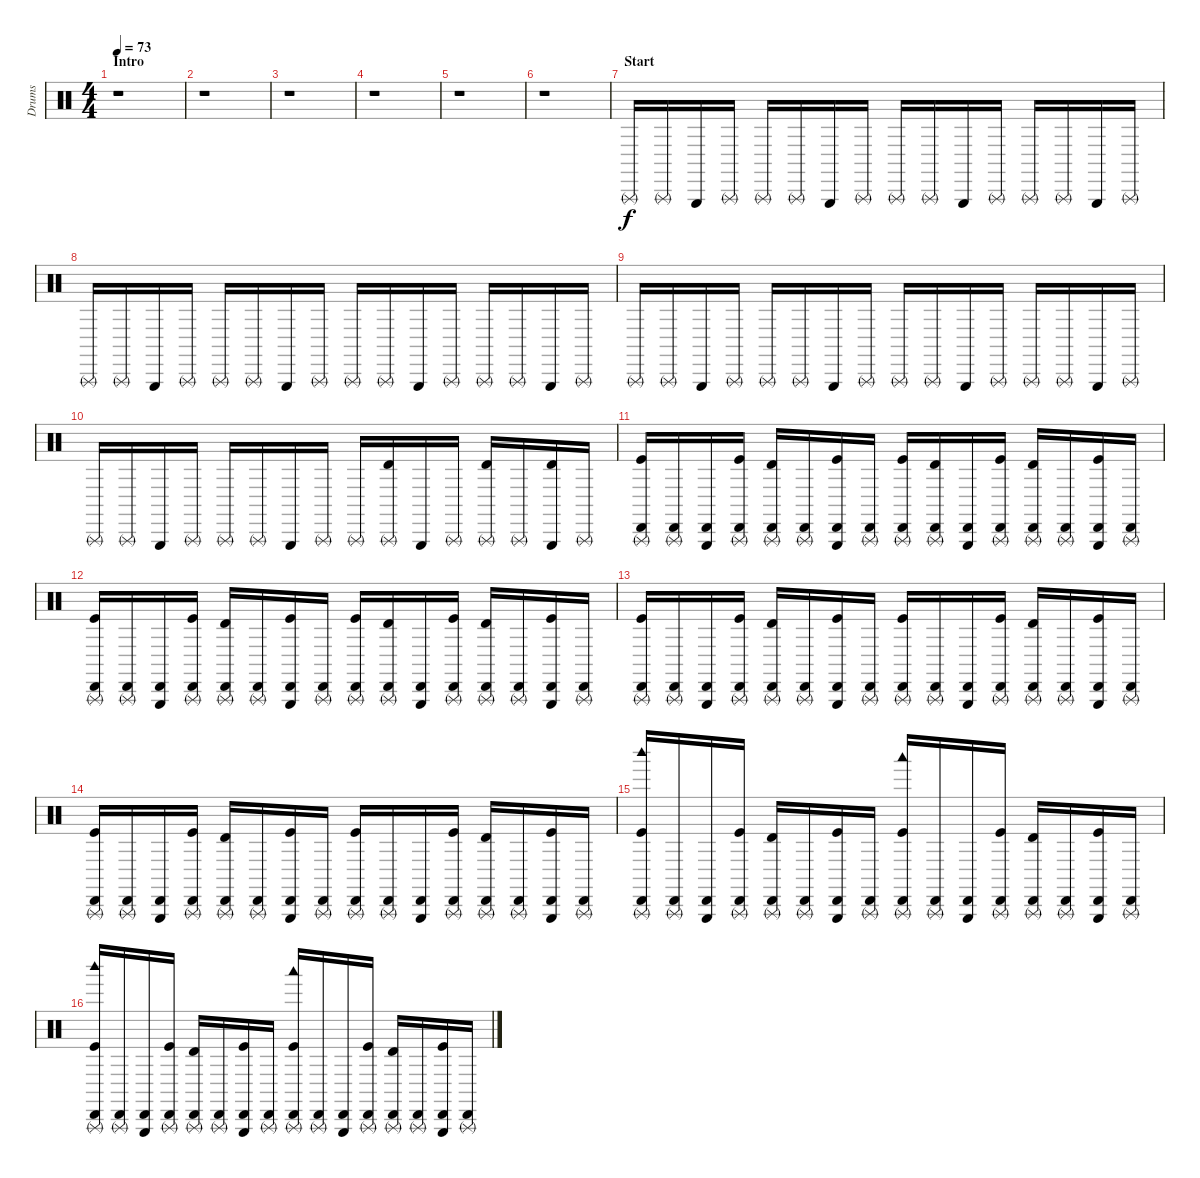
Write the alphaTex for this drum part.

\track ("Drums" "Drums") {instrument percussion}
\staff {score}
\articulation defaults
\ts (4 4)
\section ("" "Intro")
\tempo 73
\clef neutral
\ks c
r.1{dy f} |
r.1 |
r.1 |
r.1 |
r.1 |
r.1 |
\section ("" "Start")
"Triangle (rnute)".16 "Triangle (rnute)".16 "Triangle (hit)".16 "Triangle (rnute)".16 "Triangle (rnute)".16 "Triangle (rnute)".16 "Triangle (hit)".16 "Triangle (rnute)".16 "Triangle (rnute)".16 "Triangle (rnute)".16 "Triangle (hit)".16 "Triangle (rnute)".16 "Triangle (rnute)".16 "Triangle (rnute)".16 "Triangle (hit)".16 "Triangle (rnute)".16 |
"Triangle (rnute)".16 "Triangle (rnute)".16 "Triangle (hit)".16 "Triangle (rnute)".16 "Triangle (rnute)".16 "Triangle (rnute)".16 "Triangle (hit)".16 "Triangle (rnute)".16 "Triangle (rnute)".16 "Triangle (rnute)".16 "Triangle (hit)".16 "Triangle (rnute)".16 "Triangle (rnute)".16 "Triangle (rnute)".16 "Triangle (hit)".16 "Triangle (rnute)".16 |
"Triangle (rnute)".16 "Triangle (rnute)".16 "Triangle (hit)".16 "Triangle (rnute)".16 "Triangle (rnute)".16 "Triangle (rnute)".16 "Triangle (hit)".16 "Triangle (rnute)".16 "Triangle (rnute)".16 "Triangle (rnute)".16 "Triangle (hit)".16 "Triangle (rnute)".16 "Triangle (rnute)".16 "Triangle (rnute)".16 "Triangle (hit)".16 "Triangle (rnute)".16 |
"Triangle (rnute)".16 "Triangle (rnute)".16 "Triangle (hit)".16 "Triangle (rnute)".16 "Triangle (rnute)".16 "Triangle (rnute)".16 "Triangle (hit)".16 "Triangle (rnute)".16 "Triangle (rnute)".16 ("Timbale high (hit)" "Triangle (rnute)").16 "Triangle (hit)".16 "Triangle (rnute)".16 ("Timbale high (hit)" "Triangle (rnute)").16 "Triangle (rnute)".16 ("Timbale high (hit)" "Triangle (hit)").16 "Triangle (rnute)".16 |
("Cabasa (hit)" "Kick (hit)" "Triangle (rnute)").16 ("Cabasa (hit)" "Triangle (rnute)").16 ("Cabasa (hit)" "Triangle (hit)").16 ("Cabasa (hit)" "Kick (hit)" "Triangle (rnute)").16 ("Cabasa (hit)" "Timbale high (hit)" "Triangle (rnute)").16 ("Cabasa (hit)" "Triangle (rnute)").16 ("Cabasa (hit)" "Kick (hit)" "Triangle (hit)").16 ("Cabasa (hit)" "Triangle (rnute)").16 ("Cabasa (hit)" "Kick (hit)" "Triangle (rnute)").16 ("Cabasa (hit)" "Timbale high (hit)" "Triangle (rnute)").16 ("Cabasa (hit)" "Triangle (hit)").16 ("Cabasa (hit)" "Kick (hit)" "Triangle (rnute)").16 ("Cabasa (hit)" "Timbale high (hit)" "Triangle (rnute)").16 ("Cabasa (hit)" "Triangle (rnute)").16 ("Cabasa (hit)" "Kick (hit)" "Triangle (hit)").16 ("Cabasa (hit)" "Triangle (rnute)").16 |
("Cabasa (hit)" "Kick (hit)" "Triangle (rnute)").16 ("Cabasa (hit)" "Triangle (rnute)").16 ("Cabasa (hit)" "Triangle (hit)").16 ("Cabasa (hit)" "Kick (hit)" "Triangle (rnute)").16 ("Cabasa (hit)" "Timbale high (hit)" "Triangle (rnute)").16 ("Cabasa (hit)" "Triangle (rnute)").16 ("Cabasa (hit)" "Kick (hit)" "Triangle (hit)").16 ("Cabasa (hit)" "Triangle (rnute)").16 ("Cabasa (hit)" "Kick (hit)" "Triangle (rnute)").16 ("Cabasa (hit)" "Timbale high (hit)" "Triangle (rnute)").16 ("Cabasa (hit)" "Triangle (hit)").16 ("Cabasa (hit)" "Kick (hit)" "Triangle (rnute)").16 ("Cabasa (hit)" "Timbale high (hit)" "Triangle (rnute)").16 ("Cabasa (hit)" "Triangle (rnute)").16 ("Cabasa (hit)" "Kick (hit)" "Triangle (hit)").16 ("Cabasa (hit)" "Triangle (rnute)").16 |
("Cabasa (hit)" "Kick (hit)" "Triangle (rnute)").16 ("Cabasa (hit)" "Triangle (rnute)").16 ("Cabasa (hit)" "Triangle (hit)").16 ("Cabasa (hit)" "Kick (hit)" "Triangle (rnute)").16 ("Cabasa (hit)" "Timbale high (hit)" "Triangle (rnute)").16 ("Cabasa (hit)" "Triangle (rnute)").16 ("Cabasa (hit)" "Kick (hit)" "Triangle (hit)").16 ("Cabasa (hit)" "Triangle (rnute)").16 ("Cabasa (hit)" "Kick (hit)" "Triangle (rnute)").16 ("Cabasa (hit)" "Triangle (rnute)").16 ("Cabasa (hit)" "Triangle (hit)").16 ("Cabasa (hit)" "Kick (hit)" "Triangle (rnute)").16 ("Cabasa (hit)" "Timbale high (hit)" "Triangle (rnute)").16 ("Cabasa (hit)" "Triangle (rnute)").16 ("Cabasa (hit)" "Kick (hit)" "Triangle (hit)").16 ("Cabasa (hit)" "Triangle (rnute)").16 |
("Cabasa (hit)" "Kick (hit)" "Triangle (rnute)").16 ("Cabasa (hit)" "Triangle (rnute)").16 ("Cabasa (hit)" "Triangle (hit)").16 ("Cabasa (hit)" "Kick (hit)" "Triangle (rnute)").16 ("Cabasa (hit)" "Timbale high (hit)" "Triangle (rnute)").16 ("Cabasa (hit)" "Triangle (rnute)").16 ("Cabasa (hit)" "Kick (hit)" "Triangle (hit)").16 ("Cabasa (hit)" "Triangle (rnute)").16 ("Cabasa (hit)" "Kick (hit)" "Triangle (rnute)").16 ("Cabasa (hit)" "Triangle (rnute)").16 ("Cabasa (hit)" "Triangle (hit)").16 ("Cabasa (hit)" "Kick (hit)" "Triangle (rnute)").16 ("Cabasa (hit)" "Timbale high (hit)" "Triangle (rnute)").16 ("Cabasa (hit)" "Triangle (rnute)").16 ("Cabasa (hit)" "Kick (hit)" "Triangle (hit)").16 ("Cabasa (hit)" "Triangle (rnute)").16 |
("Woodblock high (hit)" "Cabasa (hit)" "Kick (hit)" "Triangle (rnute)").16 ("Cabasa (hit)" "Triangle (rnute)").16 ("Cabasa (hit)" "Triangle (hit)").16 ("Cabasa (hit)" "Kick (hit)" "Triangle (rnute)").16 ("Cabasa (hit)" "Timbale high (hit)" "Triangle (rnute)").16 ("Cabasa (hit)" "Triangle (rnute)").16 ("Cabasa (hit)" "Kick (hit)" "Triangle (hit)").16 ("Cabasa (hit)" "Triangle (rnute)").16 ("Woodblock low (hit)" "Cabasa (hit)" "Kick (hit)" "Triangle (rnute)").16 ("Cabasa (hit)" "Triangle (rnute)").16 ("Cabasa (hit)" "Triangle (hit)").16 ("Cabasa (hit)" "Kick (hit)" "Triangle (rnute)").16 ("Cabasa (hit)" "Timbale high (hit)" "Triangle (rnute)").16 ("Cabasa (hit)" "Triangle (rnute)").16 ("Cabasa (hit)" "Kick (hit)" "Triangle (hit)").16 ("Cabasa (hit)" "Triangle (rnute)").16 |
("Woodblock high (hit)" "Cabasa (hit)" "Kick (hit)" "Triangle (rnute)").16 ("Cabasa (hit)" "Triangle (rnute)").16 ("Cabasa (hit)" "Triangle (hit)").16 ("Cabasa (hit)" "Kick (hit)" "Triangle (rnute)").16 ("Cabasa (hit)" "Timbale high (hit)" "Triangle (rnute)").16 ("Cabasa (hit)" "Triangle (rnute)").16 ("Cabasa (hit)" "Kick (hit)" "Triangle (hit)").16 ("Cabasa (hit)" "Triangle (rnute)").16 ("Woodblock low (hit)" "Cabasa (hit)" "Kick (hit)" "Triangle (rnute)").16 ("Cabasa (hit)" "Triangle (rnute)").16 ("Cabasa (hit)" "Triangle (hit)").16 ("Cabasa (hit)" "Kick (hit)" "Triangle (rnute)").16 ("Cabasa (hit)" "Timbale high (hit)" "Triangle (rnute)").16 ("Cabasa (hit)" "Triangle (rnute)").16 ("Cabasa (hit)" "Kick (hit)" "Triangle (hit)").16 ("Cabasa (hit)" "Triangle (rnute)").16
